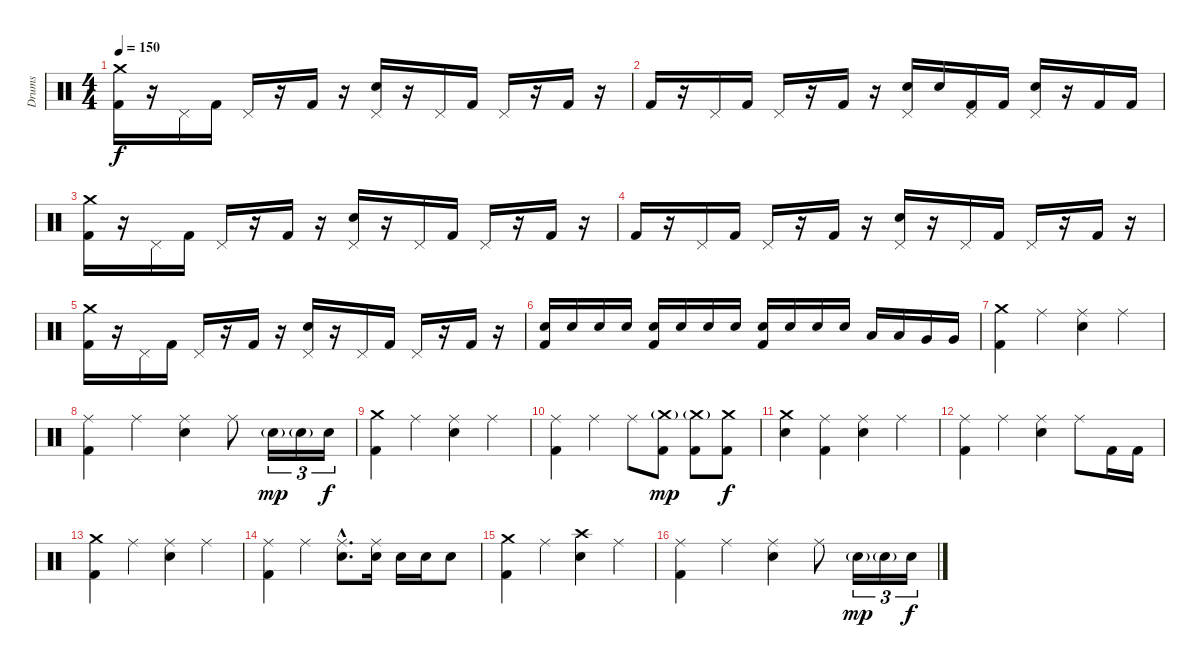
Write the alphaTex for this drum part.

\track ("Drums" "Drums") {instrument percussion}
\staff {score}
\articulation defaults
\ts (4 4)
\tempo 150
\clef neutral
\ks c
("Crash medium (hit)" "Kick (hit) 2").16{dy f} r.16 "Pedal Hi-Hat (hit)".16 "Kick (hit) 2".16 "Pedal Hi-Hat (hit)".16 r.16 "Kick (hit) 2".16 r.16 ("Pedal Hi-Hat (hit)" "Electric Snare (hit)").16 r.16 "Pedal Hi-Hat (hit)".16 "Kick (hit) 2".16 "Pedal Hi-Hat (hit)".16 r.16 "Kick (hit) 2".16 r.16 |
"Kick (hit) 2".16 r.16 "Pedal Hi-Hat (hit)".16 "Kick (hit) 2".16 "Pedal Hi-Hat (hit)".16 r.16 "Kick (hit) 2".16 r.16 ("Pedal Hi-Hat (hit)" "Electric Snare (hit)").16 "Electric Snare (hit)".16 ("Pedal Hi-Hat (hit)" "Kick (hit) 2").16 "Kick (hit) 2".16 ("Pedal Hi-Hat (hit)" "Electric Snare (hit)").16 r.16 "Kick (hit) 2".16 "Kick (hit) 2".16 |
("Crash medium (hit)" "Kick (hit) 2").16 r.16 "Pedal Hi-Hat (hit)".16 "Kick (hit) 2".16 "Pedal Hi-Hat (hit)".16 r.16 "Kick (hit) 2".16 r.16 ("Pedal Hi-Hat (hit)" "Electric Snare (hit)").16 r.16 "Pedal Hi-Hat (hit)".16 "Kick (hit) 2".16 "Pedal Hi-Hat (hit)".16 r.16 "Kick (hit) 2".16 r.16 |
"Kick (hit) 2".16 r.16 "Pedal Hi-Hat (hit)".16 "Kick (hit) 2".16 "Pedal Hi-Hat (hit)".16 r.16 "Kick (hit) 2".16 r.16 ("Pedal Hi-Hat (hit)" "Electric Snare (hit)").16 r.16 "Pedal Hi-Hat (hit)".16 "Kick (hit) 2".16 "Pedal Hi-Hat (hit)".16 r.16 "Kick (hit) 2".16 r.16 |
("Crash medium (hit)" "Kick (hit) 2").16 r.16 "Pedal Hi-Hat (hit)".16 "Kick (hit) 2".16 "Pedal Hi-Hat (hit)".16 r.16 "Kick (hit) 2".16 r.16 ("Pedal Hi-Hat (hit)" "Electric Snare (hit)").16 r.16 "Pedal Hi-Hat (hit)".16 "Kick (hit) 2".16 "Pedal Hi-Hat (hit)".16 r.16 "Kick (hit) 2".16 r.16 |
("Electric Snare (hit)" "Kick (hit) 2").16 "Electric Snare (hit)".16 "Electric Snare (hit)".16 "Electric Snare (hit)".16 ("Electric Snare (hit)" "Kick (hit) 2").16 "Electric Snare (hit)".16 "Electric Snare (hit)".16 "Electric Snare (hit)".16 ("Electric Snare (hit)" "Kick (hit) 2").16 "Electric Snare (hit)".16 "Electric Snare (hit)".16 "Electric Snare (hit)".16 "Low Tom (hit)".16 "Low Tom (hit)".16 "Very Low Tom (hit)".16 "Very Low Tom (hit)".16 |
\section ("" "")
("Crash medium (hit)" "Kick (hit) 2").4 "Ride (middle)".4 ("Ride (middle)" "Electric Snare (hit)").4 "Ride (middle)".4 |
("Ride (middle)" "Kick (hit) 2").4 "Ride (middle)".4 ("Ride (middle)" "Electric Snare (hit)").4 "Ride (middle)".8 "Electric Snare (hit)"{g}.16{tu (3 2) dy mp} "Electric Snare (hit)"{g}.16{tu (3 2)} "Electric Snare (hit)".16{tu (3 2) dy f} |
("Crash medium (hit)" "Kick (hit) 2").4 "Ride (middle)".4 ("Ride (middle)" "Electric Snare (hit)").4 "Ride (middle)".4 |
("Ride (middle)" "Kick (hit) 2").4 "Ride (middle)".4 "Ride (middle)".8 ("Crash medium (hit)"{g} "Kick (hit) 2").8{dy mp} ("Crash medium (hit)"{g} "Kick (hit) 2").8 ("Crash medium (hit)" "Kick (hit) 2").8{dy f} |
\section ("" "")
("Crash medium (hit)" "Electric Snare (hit)").4 ("Ride (middle)" "Kick (hit) 2").4 ("Ride (middle)" "Electric Snare (hit)").4 "Ride (middle)".4 |
("Ride (middle)" "Kick (hit) 2").4 "Ride (middle)".4 ("Ride (middle)" "Electric Snare (hit)").4 "Ride (middle)".8 "Kick (hit) 2".16 "Kick (hit) 2".16 |
("Crash medium (hit)" "Kick (hit) 2").4 "Ride (middle)".4 ("Ride (middle)" "Electric Snare (hit)").4 "Ride (middle)".4 |
("Ride (middle)" "Kick (hit) 2").4 "Ride (middle)".4 ("Ride (middle)"{hac} "Electric Snare (hit)"{hac}).8{d} ("Ride (middle)" "Electric Snare (hit)").16 "Electric Snare (hit)".16 "Electric Snare (hit)".16 "Electric Snare (hit)".8 |
("Crash medium (hit)" "Kick (hit) 2").4 "Ride (middle)".4 ("Crash high (hit)" "Electric Snare (hit)").4 "Ride (middle)".4 |
("Ride (middle)" "Kick (hit) 2").4 "Ride (middle)".4 ("Ride (middle)" "Electric Snare (hit)").4 "Ride (middle)".8 "Electric Snare (hit)"{g}.16{tu (3 2) dy mp} "Electric Snare (hit)"{g}.16{tu (3 2)} "Electric Snare (hit)".16{tu (3 2) dy f}
